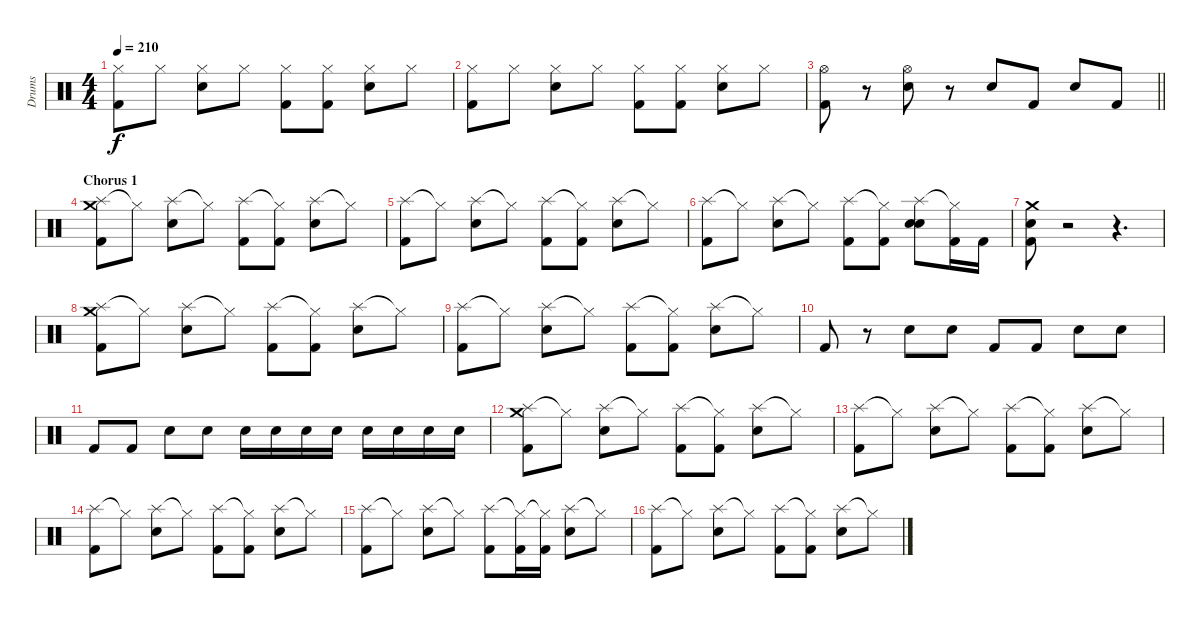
\track ("Drums" "Drums") {instrument percussion}
\staff {score}
\articulation defaults
\ts (4 4)
\tempo 210
\clef neutral
\ks c
("Hi-Hat (closed)" "Kick (hit) 2").8{dy f} "Hi-Hat (closed)".8 ("Hi-Hat (closed)" "Electric Snare (hit)").8 "Hi-Hat (closed)".8 ("Hi-Hat (closed)" "Kick (hit) 2").8 ("Hi-Hat (closed)" "Kick (hit) 2").8 ("Hi-Hat (closed)" "Electric Snare (hit)").8 "Hi-Hat (closed)".8 |
("Hi-Hat (closed)" "Kick (hit) 2").8 "Hi-Hat (closed)".8 ("Hi-Hat (closed)" "Electric Snare (hit)").8 "Hi-Hat (closed)".8 ("Hi-Hat (closed)" "Kick (hit) 2").8 ("Hi-Hat (closed)" "Kick (hit) 2").8 ("Hi-Hat (closed)" "Electric Snare (hit)").8 "Hi-Hat (closed)".8 |
\barLineRight lightlight
("Hi-Hat (open)" "Kick (hit) 2").8 r.8 ("Hi-Hat (open)" "Electric Snare (hit)").8 r.8 "Electric Snare (hit)".8 "Kick (hit) 2".8 "Electric Snare (hit)".8 "Kick (hit) 2".8 |
\section ("" "Chorus 1")
("Splash (hit)" "Crash medium (hit)" "Kick (hit) 2").8 "Hi-Hat (closed)"{t}.8 ("Splash (hit)" "Electric Snare (hit)").8 "Hi-Hat (closed)"{t}.8 ("Splash (hit)" "Kick (hit) 2").8 ("Hi-Hat (closed)"{t} "Kick (hit) 2").8 ("Splash (hit)" "Electric Snare (hit)").8 "Hi-Hat (closed)"{t}.8 |
("Splash (hit)" "Kick (hit) 2").8 "Hi-Hat (closed)"{t}.8 ("Splash (hit)" "Electric Snare (hit)").8 "Hi-Hat (closed)"{t}.8 ("Splash (hit)" "Kick (hit) 2").8 ("Hi-Hat (closed)"{t} "Kick (hit) 2").8 ("Splash (hit)" "Electric Snare (hit)").8 "Hi-Hat (closed)"{t}.8 |
("Splash (hit)" "Kick (hit) 2").8 "Hi-Hat (closed)"{t}.8 ("Splash (hit)" "Electric Snare (hit)").8 "Hi-Hat (closed)"{t}.8 ("Splash (hit)" "Kick (hit) 2").8 ("Hi-Hat (closed)"{t} "Kick (hit) 2").8 ("Splash (hit)" "Electric Snare (hit)" "Electric Snare (hit)").8 ("Hi-Hat (closed)"{t} "Kick (hit) 2").16 "Kick (hit) 2".16 |
("Crash medium (hit)" "Electric Snare (hit)" "Kick (hit) 2").8 r.2 r.4{d} |
("Splash (hit)" "Crash medium (hit)" "Kick (hit) 2").8 "Hi-Hat (closed)"{t}.8 ("Splash (hit)" "Electric Snare (hit)").8 "Hi-Hat (closed)"{t}.8 ("Splash (hit)" "Kick (hit) 2").8 ("Hi-Hat (closed)"{t} "Kick (hit) 2").8 ("Splash (hit)" "Electric Snare (hit)").8 "Hi-Hat (closed)"{t}.8 |
("Splash (hit)" "Kick (hit) 2").8 "Hi-Hat (closed)"{t}.8 ("Splash (hit)" "Electric Snare (hit)").8 "Hi-Hat (closed)"{t}.8 ("Splash (hit)" "Kick (hit) 2").8 ("Hi-Hat (closed)"{t} "Kick (hit) 2").8 ("Splash (hit)" "Electric Snare (hit)").8 "Hi-Hat (closed)"{t}.8 |
"Kick (hit) 2".8 r.8 "Electric Snare (hit)".8 "Electric Snare (hit)".8 "Kick (hit) 2".8 "Kick (hit) 2".8 "Electric Snare (hit)".8 "Electric Snare (hit)".8 |
"Kick (hit) 2".8 "Kick (hit) 2".8 "Electric Snare (hit)".8 "Electric Snare (hit)".8 "Electric Snare (hit)".16 "Electric Snare (hit)".16 "Electric Snare (hit)".16 "Electric Snare (hit)".16 "Electric Snare (hit)".16 "Electric Snare (hit)".16 "Electric Snare (hit)".16 "Electric Snare (hit)".16 |
("Splash (hit)" "Crash medium (hit)" "Kick (hit) 2").8 "Hi-Hat (closed)"{t}.8 ("Splash (hit)" "Electric Snare (hit)").8 "Hi-Hat (closed)"{t}.8 ("Splash (hit)" "Kick (hit) 2").8 ("Hi-Hat (closed)"{t} "Kick (hit) 2").8 ("Splash (hit)" "Electric Snare (hit)").8 "Hi-Hat (closed)"{t}.8 |
("Splash (hit)" "Kick (hit) 2").8 "Hi-Hat (closed)"{t}.8 ("Splash (hit)" "Electric Snare (hit)").8 "Hi-Hat (closed)"{t}.8 ("Splash (hit)" "Kick (hit) 2").8 ("Hi-Hat (closed)"{t} "Kick (hit) 2").8 ("Splash (hit)" "Electric Snare (hit)").8 "Hi-Hat (closed)"{t}.8 |
("Splash (hit)" "Kick (hit) 2").8 "Hi-Hat (closed)"{t}.8 ("Splash (hit)" "Electric Snare (hit)").8 "Hi-Hat (closed)"{t}.8 ("Splash (hit)" "Kick (hit) 2").8 ("Hi-Hat (closed)"{t} "Kick (hit) 2").8 ("Splash (hit)" "Electric Snare (hit)").8 "Hi-Hat (closed)"{t}.8 |
("Splash (hit)" "Kick (hit) 2").8 "Hi-Hat (closed)"{t}.8 ("Splash (hit)" "Electric Snare (hit)").8 "Hi-Hat (closed)"{t}.8 ("Splash (hit)" "Kick (hit) 2").8 ("Hi-Hat (closed)"{t} "Kick (hit) 2").16 ("Hi-Hat (closed)"{t} "Kick (hit) 2").16 ("Splash (hit)" "Electric Snare (hit)").8 "Hi-Hat (closed)"{t}.8 |
("Splash (hit)" "Kick (hit) 2").8 "Hi-Hat (closed)"{t}.8 ("Splash (hit)" "Electric Snare (hit)").8 "Hi-Hat (closed)"{t}.8 ("Splash (hit)" "Kick (hit) 2").8 ("Hi-Hat (closed)"{t} "Kick (hit) 2").8 ("Splash (hit)" "Electric Snare (hit)").8 "Hi-Hat (closed)"{t}.8
